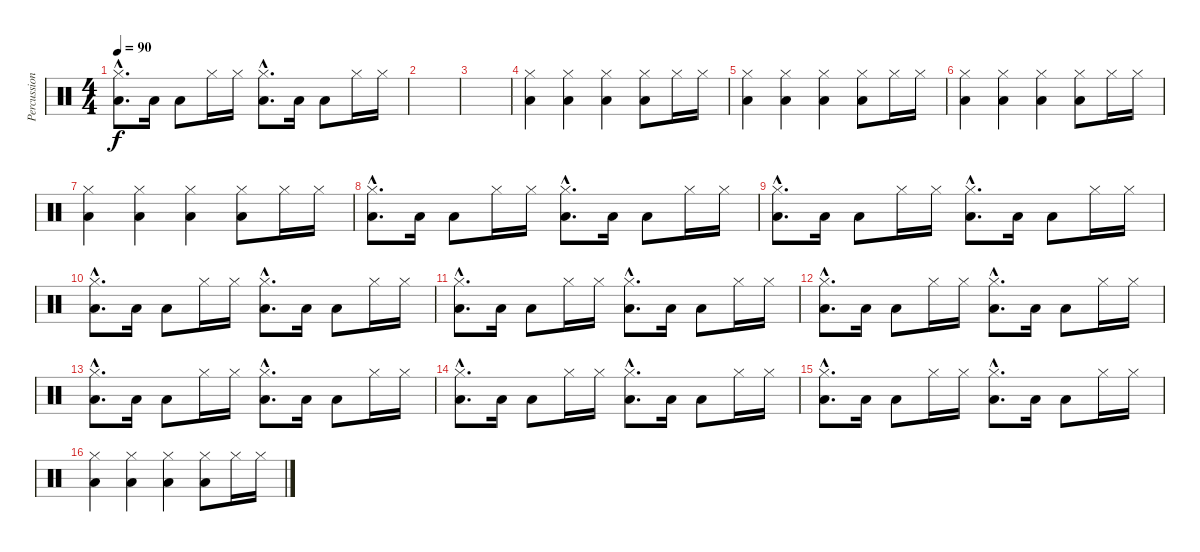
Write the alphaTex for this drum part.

\track ("Percussions" "Percussion") {instrument percussion}
\staff {score}
\articulation defaults
\ts (4 4)
\tempo 90
\clef neutral
\ks c
("Hi-Hat (closed)"{hac} "Low Floor Tom (hit)"{hac}).8{d dy f} "Low Floor Tom (hit)".16 "Low Floor Tom (hit)".8 "Hi-Hat (closed)".16 "Hi-Hat (closed)".16 ("Hi-Hat (closed)"{hac} "Low Floor Tom (hit)"{hac}).8{d} "Low Floor Tom (hit)".16 "Low Floor Tom (hit)".8 "Hi-Hat (closed)".16 "Hi-Hat (closed)".16 |
|
|
("Hi-Hat (closed)" "Low Floor Tom (hit)").4 ("Hi-Hat (closed)" "Low Floor Tom (hit)").4 ("Hi-Hat (closed)" "Low Floor Tom (hit)").4 ("Hi-Hat (closed)" "Low Floor Tom (hit)").8 "Hi-Hat (closed)".16 "Hi-Hat (closed)".16 |
("Hi-Hat (closed)" "Low Floor Tom (hit)").4 ("Hi-Hat (closed)" "Low Floor Tom (hit)").4 ("Hi-Hat (closed)" "Low Floor Tom (hit)").4 ("Hi-Hat (closed)" "Low Floor Tom (hit)").8 "Hi-Hat (closed)".16 "Hi-Hat (closed)".16 |
("Hi-Hat (closed)" "Low Floor Tom (hit)").4 ("Hi-Hat (closed)" "Low Floor Tom (hit)").4 ("Hi-Hat (closed)" "Low Floor Tom (hit)").4 ("Hi-Hat (closed)" "Low Floor Tom (hit)").8 "Hi-Hat (closed)".16 "Hi-Hat (closed)".16 |
("Hi-Hat (closed)" "Low Floor Tom (hit)").4 ("Hi-Hat (closed)" "Low Floor Tom (hit)").4 ("Hi-Hat (closed)" "Low Floor Tom (hit)").4 ("Hi-Hat (closed)" "Low Floor Tom (hit)").8 "Hi-Hat (closed)".16 "Hi-Hat (closed)".16 |
("Hi-Hat (closed)"{hac} "Low Floor Tom (hit)"{hac}).8{d} "Low Floor Tom (hit)".16 "Low Floor Tom (hit)".8 "Hi-Hat (closed)".16 "Hi-Hat (closed)".16 ("Hi-Hat (closed)"{hac} "Low Floor Tom (hit)"{hac}).8{d} "Low Floor Tom (hit)".16 "Low Floor Tom (hit)".8 "Hi-Hat (closed)".16 "Hi-Hat (closed)".16 |
("Hi-Hat (closed)"{hac} "Low Floor Tom (hit)"{hac}).8{d} "Low Floor Tom (hit)".16 "Low Floor Tom (hit)".8 "Hi-Hat (closed)".16 "Hi-Hat (closed)".16 ("Hi-Hat (closed)"{hac} "Low Floor Tom (hit)"{hac}).8{d} "Low Floor Tom (hit)".16 "Low Floor Tom (hit)".8 "Hi-Hat (closed)".16 "Hi-Hat (closed)".16 |
("Hi-Hat (closed)"{hac} "Low Floor Tom (hit)"{hac}).8{d} "Low Floor Tom (hit)".16 "Low Floor Tom (hit)".8 "Hi-Hat (closed)".16 "Hi-Hat (closed)".16 ("Hi-Hat (closed)"{hac} "Low Floor Tom (hit)"{hac}).8{d} "Low Floor Tom (hit)".16 "Low Floor Tom (hit)".8 "Hi-Hat (closed)".16 "Hi-Hat (closed)".16 |
("Hi-Hat (closed)"{hac} "Low Floor Tom (hit)"{hac}).8{d} "Low Floor Tom (hit)".16 "Low Floor Tom (hit)".8 "Hi-Hat (closed)".16 "Hi-Hat (closed)".16 ("Hi-Hat (closed)"{hac} "Low Floor Tom (hit)"{hac}).8{d} "Low Floor Tom (hit)".16 "Low Floor Tom (hit)".8 "Hi-Hat (closed)".16 "Hi-Hat (closed)".16 |
("Hi-Hat (closed)"{hac} "Low Floor Tom (hit)"{hac}).8{d} "Low Floor Tom (hit)".16 "Low Floor Tom (hit)".8 "Hi-Hat (closed)".16 "Hi-Hat (closed)".16 ("Hi-Hat (closed)"{hac} "Low Floor Tom (hit)"{hac}).8{d} "Low Floor Tom (hit)".16 "Low Floor Tom (hit)".8 "Hi-Hat (closed)".16 "Hi-Hat (closed)".16 |
("Hi-Hat (closed)"{hac} "Low Floor Tom (hit)"{hac}).8{d} "Low Floor Tom (hit)".16 "Low Floor Tom (hit)".8 "Hi-Hat (closed)".16 "Hi-Hat (closed)".16 ("Hi-Hat (closed)"{hac} "Low Floor Tom (hit)"{hac}).8{d} "Low Floor Tom (hit)".16 "Low Floor Tom (hit)".8 "Hi-Hat (closed)".16 "Hi-Hat (closed)".16 |
("Hi-Hat (closed)"{hac} "Low Floor Tom (hit)"{hac}).8{d} "Low Floor Tom (hit)".16 "Low Floor Tom (hit)".8 "Hi-Hat (closed)".16 "Hi-Hat (closed)".16 ("Hi-Hat (closed)"{hac} "Low Floor Tom (hit)"{hac}).8{d} "Low Floor Tom (hit)".16 "Low Floor Tom (hit)".8 "Hi-Hat (closed)".16 "Hi-Hat (closed)".16 |
("Hi-Hat (closed)"{hac} "Low Floor Tom (hit)"{hac}).8{d} "Low Floor Tom (hit)".16 "Low Floor Tom (hit)".8 "Hi-Hat (closed)".16 "Hi-Hat (closed)".16 ("Hi-Hat (closed)"{hac} "Low Floor Tom (hit)"{hac}).8{d} "Low Floor Tom (hit)".16 "Low Floor Tom (hit)".8 "Hi-Hat (closed)".16 "Hi-Hat (closed)".16 |
("Hi-Hat (closed)" "Low Floor Tom (hit)").4 ("Hi-Hat (closed)" "Low Floor Tom (hit)").4 ("Hi-Hat (closed)" "Low Floor Tom (hit)").4 ("Hi-Hat (closed)" "Low Floor Tom (hit)").8 "Hi-Hat (closed)".16 "Hi-Hat (closed)".16
